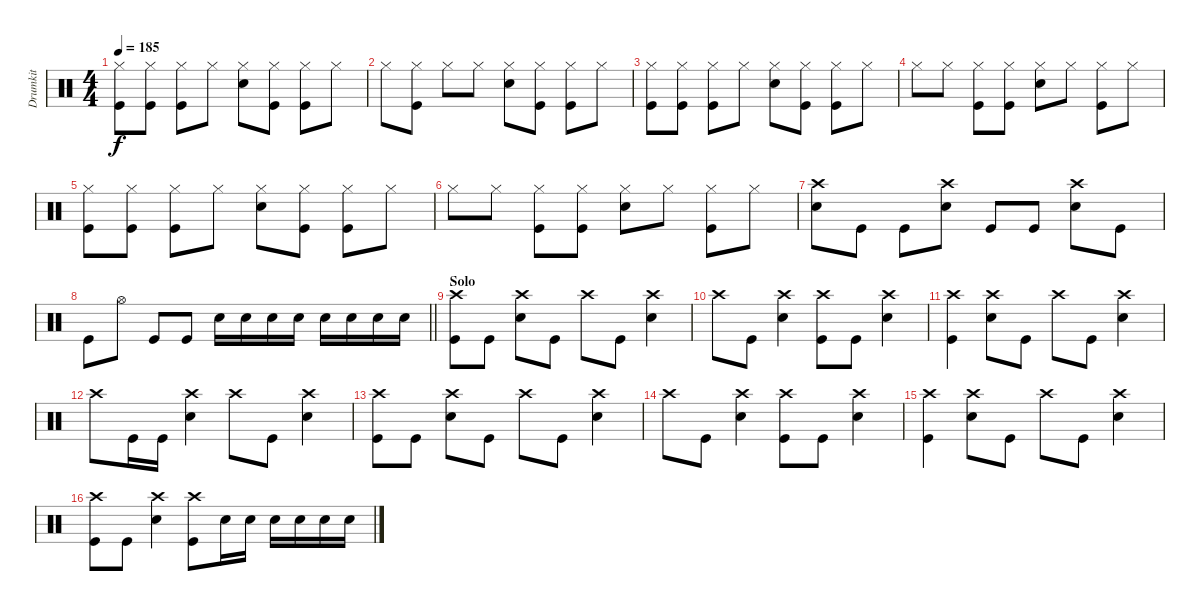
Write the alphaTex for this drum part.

\track ("Drumkit" "Drumkit") {instrument percussion}
\staff {score}
\articulation defaults
\ts (4 4)
\tempo 185
\clef neutral
\ks c
("Hi-Hat (closed)" "Kick (hit)").8{dy f} ("Hi-Hat (closed)" "Kick (hit)").8 ("Hi-Hat (closed)" "Kick (hit)").8 "Hi-Hat (closed)".8 ("Hi-Hat (closed)" "Snare (hit) 2").8 ("Hi-Hat (closed)" "Kick (hit)").8 ("Hi-Hat (closed)" "Kick (hit)").8 "Hi-Hat (closed)".8 |
"Hi-Hat (closed)".8 ("Hi-Hat (closed)" "Kick (hit)").8 "Hi-Hat (closed)".8 "Hi-Hat (closed)".8 ("Hi-Hat (closed)" "Snare (hit) 2").8 ("Hi-Hat (closed)" "Kick (hit)").8 ("Hi-Hat (closed)" "Kick (hit)").8 "Hi-Hat (closed)".8 |
("Hi-Hat (closed)" "Kick (hit)").8 ("Hi-Hat (closed)" "Kick (hit)").8 ("Hi-Hat (closed)" "Kick (hit)").8 "Hi-Hat (closed)".8 ("Hi-Hat (closed)" "Snare (hit) 2").8 ("Hi-Hat (closed)" "Kick (hit)").8 ("Hi-Hat (closed)" "Kick (hit)").8 "Hi-Hat (closed)".8 |
"Hi-Hat (closed)".8 "Hi-Hat (closed)".8 ("Hi-Hat (closed)" "Kick (hit)").8 ("Hi-Hat (closed)" "Kick (hit)").8 ("Hi-Hat (closed)" "Snare (hit) 2").8 "Hi-Hat (closed)".8 ("Hi-Hat (closed)" "Kick (hit)").8 "Hi-Hat (closed)".8 |
("Hi-Hat (closed)" "Kick (hit)").8 ("Hi-Hat (closed)" "Kick (hit)").8 ("Hi-Hat (closed)" "Kick (hit)").8 "Hi-Hat (closed)".8 ("Hi-Hat (closed)" "Snare (hit) 2").8 ("Hi-Hat (closed)" "Kick (hit)").8 ("Hi-Hat (closed)" "Kick (hit)").8 "Hi-Hat (closed)".8 |
"Hi-Hat (closed)".8 "Hi-Hat (closed)".8 ("Hi-Hat (closed)" "Kick (hit)").8 ("Hi-Hat (closed)" "Kick (hit)").8 ("Hi-Hat (closed)" "Snare (hit) 2").8 "Hi-Hat (closed)".8 ("Hi-Hat (closed)" "Kick (hit)").8 "Hi-Hat (closed)".8 |
("Crash high (hit)" "Snare (hit) 2").8 "Kick (hit)".8 "Kick (hit)".8 ("Crash high (hit)" "Snare (hit) 2").8 "Kick (hit)".8 "Kick (hit)".8 ("Crash high (hit)" "Snare (hit) 2").8 "Kick (hit)".8 |
\barLineRight lightlight "Kick (hit)".8 "Hi-Hat (open)".8 "Kick (hit)".8 "Kick (hit)".8 "Snare (hit) 2".16 "Snare (hit) 2".16 "Snare (hit) 2".16 "Snare (hit) 2".16 "Snare (hit) 2".16 "Snare (hit) 2".16 "Snare (hit) 2".16 "Snare (hit) 2".16
|
\section ("" "Solo ")
("Crash high (hit)" "Kick (hit)").8 "Kick (hit)".8 ("Snare (hit) 2" "Crash high (hit)").8 "Kick (hit)".8 "Crash high (hit)".8 "Kick (hit)".8 ("Snare (hit) 2" "Crash high (hit)").4 |
"Crash high (hit)".8 "Kick (hit)".8 ("Snare (hit) 2" "Crash high (hit)").4 ("Kick (hit)" "Crash high (hit)").8 "Kick (hit)".8 ("Snare (hit) 2" "Crash high (hit)").4 |
("Crash high (hit)" "Kick (hit)").4 ("Crash high (hit)" "Snare (hit) 2").8 "Kick (hit)".8 "Crash high (hit)".8 "Kick (hit)".8 ("Snare (hit) 2" "Crash high (hit)").4 |
"Crash high (hit)".8 "Kick (hit)".16 "Kick (hit)".16 ("Crash high (hit)" "Snare (hit) 2").4 "Crash high (hit)".8 "Kick (hit)".8 ("Snare (hit) 2" "Crash high (hit)").4 |
("Crash high (hit)" "Kick (hit)").8 "Kick (hit)".8 ("Snare (hit) 2" "Crash high (hit)").8 "Kick (hit)".8 "Crash high (hit)".8 "Kick (hit)".8 ("Snare (hit) 2" "Crash high (hit)").4 |
"Crash high (hit)".8 "Kick (hit)".8 ("Snare (hit) 2" "Crash high (hit)").4 ("Kick (hit)" "Crash high (hit)").8 "Kick (hit)".8 ("Snare (hit) 2" "Crash high (hit)").4 |
("Crash high (hit)" "Kick (hit)").4 ("Crash high (hit)" "Snare (hit) 2").8 "Kick (hit)".8 "Crash high (hit)".8 "Kick (hit)".8 ("Snare (hit) 2" "Crash high (hit)").4 |
("Crash high (hit)" "Kick (hit)").8 "Kick (hit)".8 ("Snare (hit) 2" "Crash high (hit)").4 ("Crash high (hit)" "Kick (hit)").8 "Snare (hit) 2".16 "Snare (hit) 2".16 "Snare (hit) 2".16 "Snare (hit) 2".16 "Snare (hit) 2".16 "Snare (hit) 2".16
